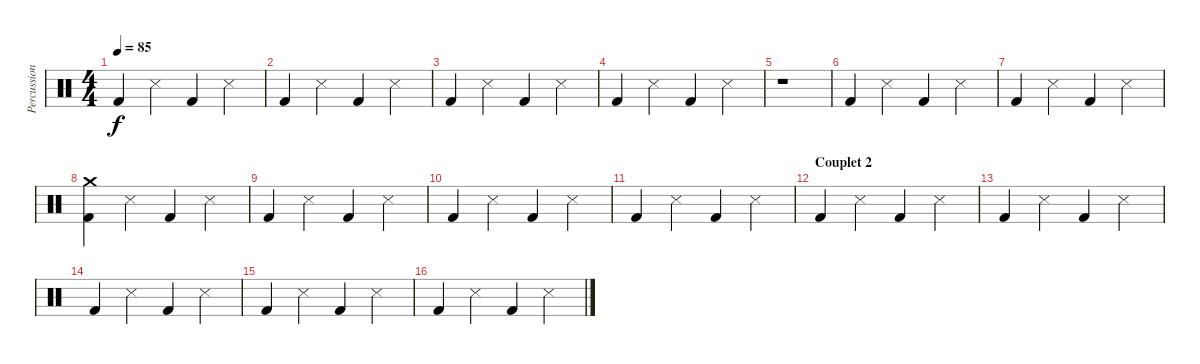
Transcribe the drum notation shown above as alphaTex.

\track ("Percussions" "Percussion") {instrument percussion}
\staff {score}
\articulation defaults
\ts (4 4)
\tempo 85
\clef neutral
\ks c "Kick (hit) 2".4{dy f} "Snare (side stick) 3".4 "Kick (hit) 2".4 "Snare (side stick) 3".4
|
"Kick (hit) 2".4 "Snare (side stick) 3".4 "Kick (hit) 2".4 "Snare (side stick) 3".4 |
"Kick (hit) 2".4 "Snare (side stick) 3".4 "Kick (hit) 2".4 "Snare (side stick) 3".4 |
"Kick (hit) 2".4 "Snare (side stick) 3".4 "Kick (hit) 2".4 "Snare (side stick) 3".4 |
r.1 |
"Kick (hit) 2".4 "Snare (side stick) 3".4 "Kick (hit) 2".4 "Snare (side stick) 3".4 |
"Kick (hit) 2".4 "Snare (side stick) 3".4 "Kick (hit) 2".4 "Snare (side stick) 3".4 |
("Crash medium (hit)" "Kick (hit) 2").4 "Snare (side stick) 3".4 "Kick (hit) 2".4 "Snare (side stick) 3".4 |
"Kick (hit) 2".4 "Snare (side stick) 3".4 "Kick (hit) 2".4 "Snare (side stick) 3".4 |
"Kick (hit) 2".4 "Snare (side stick) 3".4 "Kick (hit) 2".4 "Snare (side stick) 3".4 |
"Kick (hit) 2".4 "Snare (side stick) 3".4 "Kick (hit) 2".4 "Snare (side stick) 3".4 |
\section ("" "Couplet 2")
"Kick (hit) 2".4 "Snare (side stick) 3".4 "Kick (hit) 2".4 "Snare (side stick) 3".4 |
"Kick (hit) 2".4 "Snare (side stick) 3".4 "Kick (hit) 2".4 "Snare (side stick) 3".4 |
"Kick (hit) 2".4 "Snare (side stick) 3".4 "Kick (hit) 2".4 "Snare (side stick) 3".4 |
"Kick (hit) 2".4 "Snare (side stick) 3".4 "Kick (hit) 2".4 "Snare (side stick) 3".4 |
"Kick (hit) 2".4 "Snare (side stick) 3".4 "Kick (hit) 2".4 "Snare (side stick) 3".4
